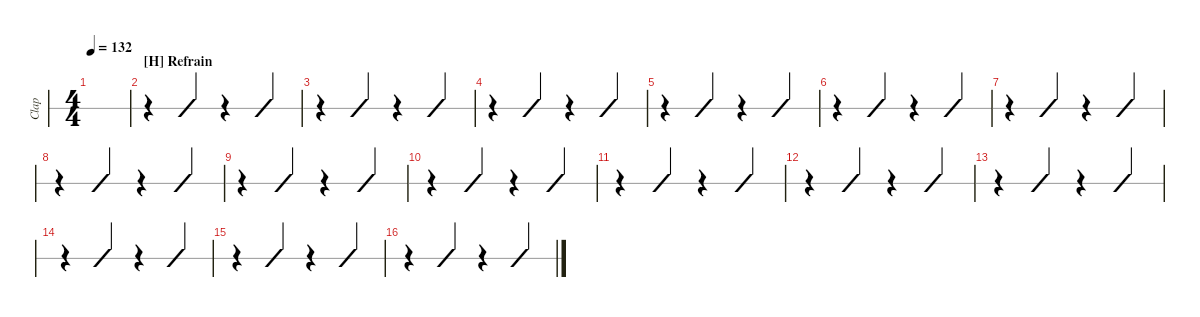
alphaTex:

\defaultSystemsLayout 4
\hideDynamics
\bracketExtendMode nobrackets
\otherSystemsTrackNameOrientation horizontal
\track ("Hand Clap" "Clap") {instrument percussion}
\staff {slash}
\articulation defaults
\ts (4 4)
\tempo 132
\clef neutral
\ks ab
|
\section ("H" "Refrain")
\ks f
r.4 "Kick (hit)".4 r.4 "Kick (hit)".4 |
r.4 "Kick (hit)".4 r.4 "Kick (hit)".4 |
r.4 "Kick (hit)".4 r.4 "Kick (hit)".4 |
r.4 "Kick (hit)".4 r.4 "Kick (hit)".4 |
r.4 "Kick (hit)".4 r.4 "Kick (hit)".4 |
r.4 "Kick (hit)".4 r.4 "Kick (hit)".4 |
r.4 "Kick (hit)".4 r.4 "Kick (hit)".4 |
r.4 "Kick (hit)".4 r.4 "Kick (hit)".4 |
r.4 "Kick (hit)".4 r.4 "Kick (hit)".4 |
r.4 "Kick (hit)".4 r.4 "Kick (hit)".4 |
r.4 "Kick (hit)".4 r.4 "Kick (hit)".4 |
r.4 "Kick (hit)".4 r.4 "Kick (hit)".4 |
r.4 "Kick (hit)".4 r.4 "Kick (hit)".4 |
r.4 "Kick (hit)".4 r.4 "Kick (hit)".4 |
r.4 "Kick (hit)".4 r.4 "Kick (hit)".4
